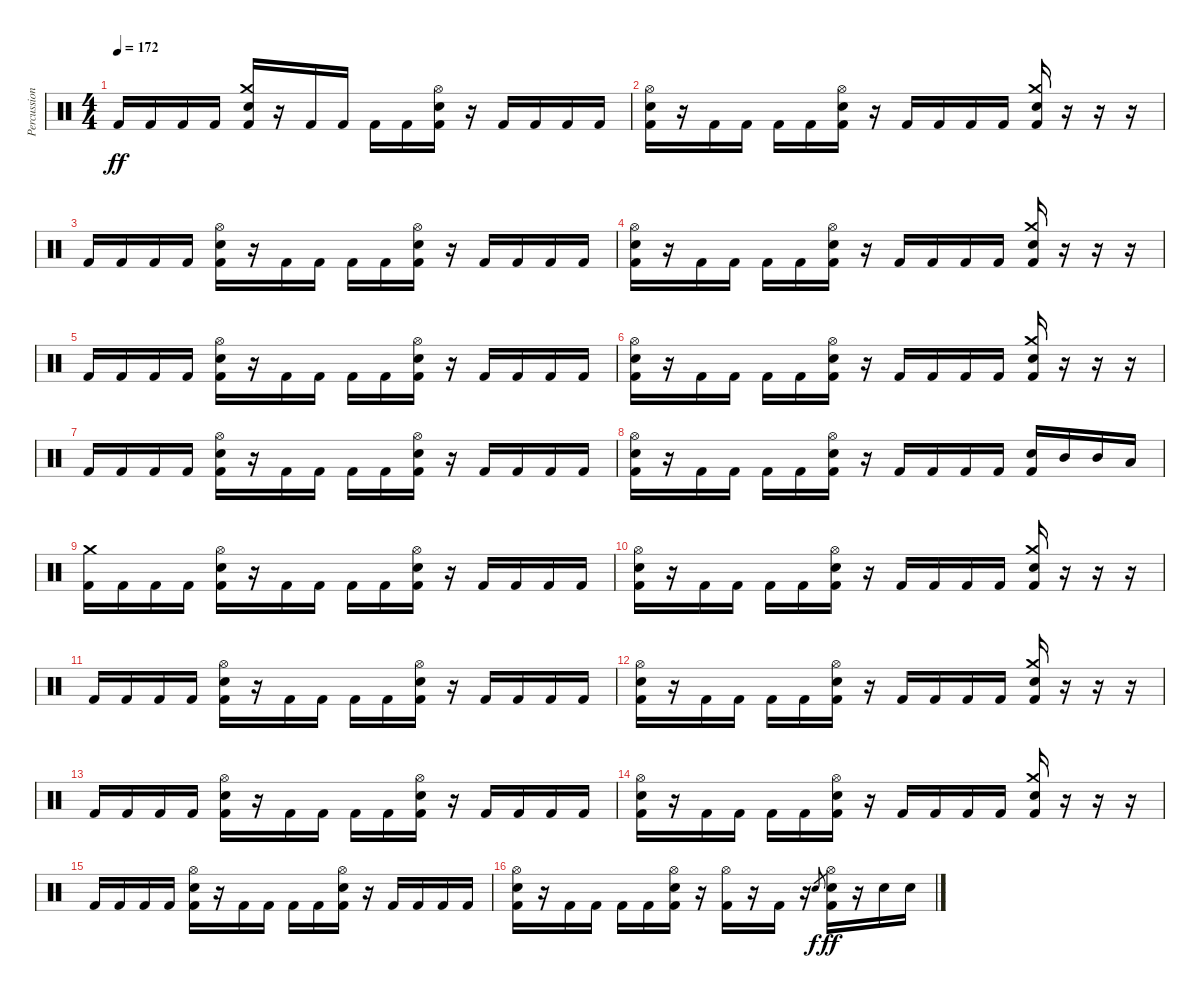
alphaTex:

\track ("Percussion" "Percussion") {instrument percussion}
\staff {score}
\articulation defaults
\ts (4 4)
\tempo 172
\clef neutral
\ks c "Kick (hit) 2".16{dy ff} "Kick (hit) 2".16 "Kick (hit) 2".16 "Kick (hit) 2".16
("Crash medium (hit)" "Electric Snare (hit)" "Kick (hit) 2").16 r.16 "Kick (hit) 2".16 "Kick (hit) 2".16 "Kick (hit) 2".16 "Kick (hit) 2".16 ("Hi-Hat (open)" "Electric Snare (hit)" "Kick (hit) 2").16 r.16 "Kick (hit) 2".16 "Kick (hit) 2".16 "Kick (hit) 2".16 "Kick (hit) 2".16 |
("Hi-Hat (open)" "Electric Snare (hit)" "Kick (hit) 2").16 r.16 "Kick (hit) 2".16 "Kick (hit) 2".16 "Kick (hit) 2".16 "Kick (hit) 2".16 ("Hi-Hat (open)" "Electric Snare (hit)" "Kick (hit) 2").16 r.16 "Kick (hit) 2".16 "Kick (hit) 2".16 "Kick (hit) 2".16 "Kick (hit) 2".16 ("Crash medium (hit)" "Electric Snare (hit)" "Kick (hit) 2").16 r.16 r.16 r.16 |
"Kick (hit) 2".16 "Kick (hit) 2".16 "Kick (hit) 2".16 "Kick (hit) 2".16 ("Hi-Hat (open)" "Electric Snare (hit)" "Kick (hit) 2").16 r.16 "Kick (hit) 2".16 "Kick (hit) 2".16 "Kick (hit) 2".16 "Kick (hit) 2".16 ("Hi-Hat (open)" "Electric Snare (hit)" "Kick (hit) 2").16 r.16 "Kick (hit) 2".16 "Kick (hit) 2".16 "Kick (hit) 2".16 "Kick (hit) 2".16 |
("Hi-Hat (open)" "Electric Snare (hit)" "Kick (hit) 2").16 r.16 "Kick (hit) 2".16 "Kick (hit) 2".16 "Kick (hit) 2".16 "Kick (hit) 2".16 ("Hi-Hat (open)" "Electric Snare (hit)" "Kick (hit) 2").16 r.16 "Kick (hit) 2".16 "Kick (hit) 2".16 "Kick (hit) 2".16 "Kick (hit) 2".16 ("Crash medium (hit)" "Electric Snare (hit)" "Kick (hit) 2").16 r.16 r.16 r.16 |
"Kick (hit) 2".16 "Kick (hit) 2".16 "Kick (hit) 2".16 "Kick (hit) 2".16 ("Hi-Hat (open)" "Electric Snare (hit)" "Kick (hit) 2").16 r.16 "Kick (hit) 2".16 "Kick (hit) 2".16 "Kick (hit) 2".16 "Kick (hit) 2".16 ("Hi-Hat (open)" "Electric Snare (hit)" "Kick (hit) 2").16 r.16 "Kick (hit) 2".16 "Kick (hit) 2".16 "Kick (hit) 2".16 "Kick (hit) 2".16 |
("Hi-Hat (open)" "Electric Snare (hit)" "Kick (hit) 2").16 r.16 "Kick (hit) 2".16 "Kick (hit) 2".16 "Kick (hit) 2".16 "Kick (hit) 2".16 ("Hi-Hat (open)" "Electric Snare (hit)" "Kick (hit) 2").16 r.16 "Kick (hit) 2".16 "Kick (hit) 2".16 "Kick (hit) 2".16 "Kick (hit) 2".16 ("Crash medium (hit)" "Electric Snare (hit)" "Kick (hit) 2").16 r.16 r.16 r.16 |
"Kick (hit) 2".16 "Kick (hit) 2".16 "Kick (hit) 2".16 "Kick (hit) 2".16 ("Hi-Hat (open)" "Electric Snare (hit)" "Kick (hit) 2").16 r.16 "Kick (hit) 2".16 "Kick (hit) 2".16 "Kick (hit) 2".16 "Kick (hit) 2".16 ("Hi-Hat (open)" "Electric Snare (hit)" "Kick (hit) 2").16 r.16 "Kick (hit) 2".16 "Kick (hit) 2".16 "Kick (hit) 2".16 "Kick (hit) 2".16 |
("Hi-Hat (open)" "Electric Snare (hit)" "Kick (hit) 2").16 r.16 "Kick (hit) 2".16 "Kick (hit) 2".16 "Kick (hit) 2".16 "Kick (hit) 2".16 ("Hi-Hat (open)" "Electric Snare (hit)" "Kick (hit) 2").16 r.16 "Kick (hit) 2".16 "Kick (hit) 2".16 "Kick (hit) 2".16 "Kick (hit) 2".16 ("Electric Snare (hit)" "Kick (hit) 2").16 "Mid Tom (hit)".16 "Mid Tom (hit)".16 "Low Tom (hit)".16 |
("Crash medium (hit)" "Kick (hit) 2").16 "Kick (hit) 2".16 "Kick (hit) 2".16 "Kick (hit) 2".16 ("Hi-Hat (open)" "Electric Snare (hit)" "Kick (hit) 2").16 r.16 "Kick (hit) 2".16 "Kick (hit) 2".16 "Kick (hit) 2".16 "Kick (hit) 2".16 ("Hi-Hat (open)" "Electric Snare (hit)" "Kick (hit) 2").16 r.16 "Kick (hit) 2".16 "Kick (hit) 2".16 "Kick (hit) 2".16 "Kick (hit) 2".16 |
("Hi-Hat (open)" "Electric Snare (hit)" "Kick (hit) 2").16 r.16 "Kick (hit) 2".16 "Kick (hit) 2".16 "Kick (hit) 2".16 "Kick (hit) 2".16 ("Hi-Hat (open)" "Electric Snare (hit)" "Kick (hit) 2").16 r.16 "Kick (hit) 2".16 "Kick (hit) 2".16 "Kick (hit) 2".16 "Kick (hit) 2".16 ("Crash medium (hit)" "Electric Snare (hit)" "Kick (hit) 2").16 r.16 r.16 r.16 |
"Kick (hit) 2".16 "Kick (hit) 2".16 "Kick (hit) 2".16 "Kick (hit) 2".16 ("Hi-Hat (open)" "Electric Snare (hit)" "Kick (hit) 2").16 r.16 "Kick (hit) 2".16 "Kick (hit) 2".16 "Kick (hit) 2".16 "Kick (hit) 2".16 ("Hi-Hat (open)" "Electric Snare (hit)" "Kick (hit) 2").16 r.16 "Kick (hit) 2".16 "Kick (hit) 2".16 "Kick (hit) 2".16 "Kick (hit) 2".16 |
("Hi-Hat (open)" "Electric Snare (hit)" "Kick (hit) 2").16 r.16 "Kick (hit) 2".16 "Kick (hit) 2".16 "Kick (hit) 2".16 "Kick (hit) 2".16 ("Hi-Hat (open)" "Electric Snare (hit)" "Kick (hit) 2").16 r.16 "Kick (hit) 2".16 "Kick (hit) 2".16 "Kick (hit) 2".16 "Kick (hit) 2".16 ("Crash medium (hit)" "Electric Snare (hit)" "Kick (hit) 2").16 r.16 r.16 r.16 |
"Kick (hit) 2".16 "Kick (hit) 2".16 "Kick (hit) 2".16 "Kick (hit) 2".16 ("Hi-Hat (open)" "Electric Snare (hit)" "Kick (hit) 2").16 r.16 "Kick (hit) 2".16 "Kick (hit) 2".16 "Kick (hit) 2".16 "Kick (hit) 2".16 ("Hi-Hat (open)" "Electric Snare (hit)" "Kick (hit) 2").16 r.16 "Kick (hit) 2".16 "Kick (hit) 2".16 "Kick (hit) 2".16 "Kick (hit) 2".16 |
("Hi-Hat (open)" "Electric Snare (hit)" "Kick (hit) 2").16 r.16 "Kick (hit) 2".16 "Kick (hit) 2".16 "Kick (hit) 2".16 "Kick (hit) 2".16 ("Hi-Hat (open)" "Electric Snare (hit)" "Kick (hit) 2").16 r.16 "Kick (hit) 2".16 "Kick (hit) 2".16 "Kick (hit) 2".16 "Kick (hit) 2".16 ("Crash medium (hit)" "Electric Snare (hit)" "Kick (hit) 2").16 r.16 r.16 r.16 |
"Kick (hit) 2".16 "Kick (hit) 2".16 "Kick (hit) 2".16 "Kick (hit) 2".16 ("Hi-Hat (open)" "Electric Snare (hit)" "Kick (hit) 2").16 r.16 "Kick (hit) 2".16 "Kick (hit) 2".16 "Kick (hit) 2".16 "Kick (hit) 2".16 ("Hi-Hat (open)" "Electric Snare (hit)" "Kick (hit) 2").16 r.16 "Kick (hit) 2".16 "Kick (hit) 2".16 "Kick (hit) 2".16 "Kick (hit) 2".16 |
("Hi-Hat (open)" "Electric Snare (hit)" "Kick (hit) 2").16 r.16 "Kick (hit) 2".16 "Kick (hit) 2".16 "Kick (hit) 2".16 "Kick (hit) 2".16 ("Hi-Hat (open)" "Electric Snare (hit)" "Kick (hit) 2").16 r.16 ("Hi-Hat (open)" "Kick (hit) 2").16 r.16 "Kick (hit) 2".16 r.16 "Electric Snare (hit)".8{gr dy f} ("Hi-Hat (open)" "Electric Snare (hit)" "Kick (hit) 2").16{dy ff} r.16 "Electric Snare (hit)".16 "Electric Snare (hit)".16
